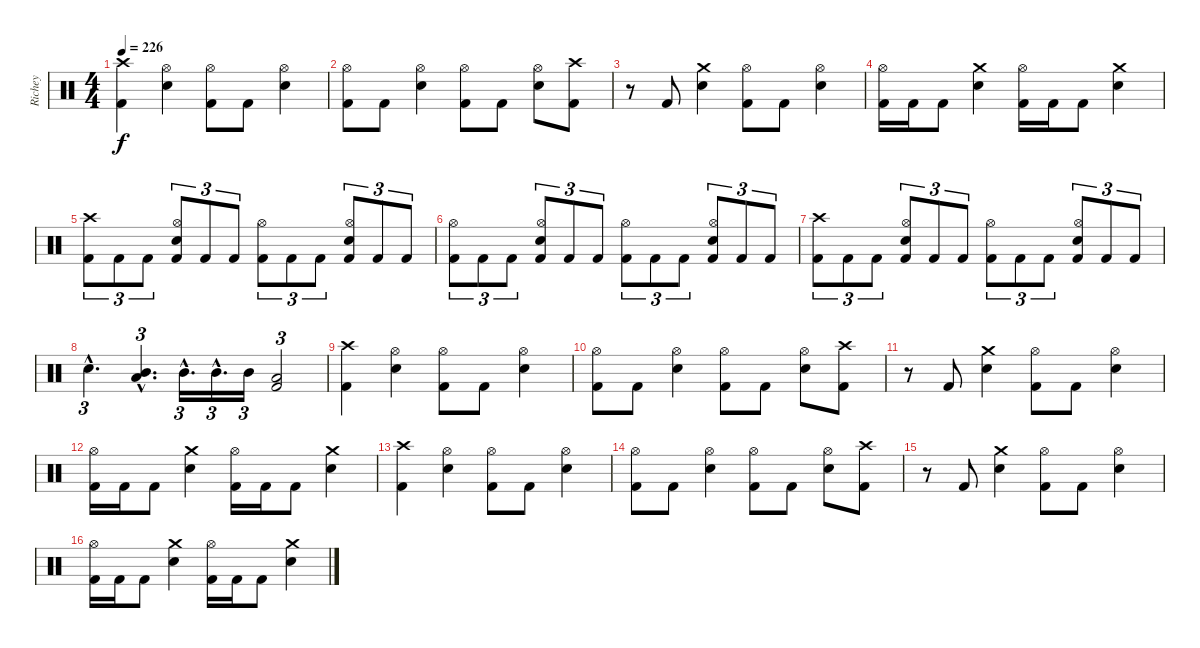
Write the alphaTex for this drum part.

\track ("Richey" "Richey") {instrument percussion}
\staff {score}
\articulation defaults
\ts (4 4)
\tempo 226
\clef neutral
\ks c
("Crash high (hit)" "Kick (hit) 2").4{dy f} ("Hi-Hat (open)" "Snare (hit) 2").4 ("Hi-Hat (open)" "Kick (hit) 2").8 "Kick (hit) 2".8 ("Hi-Hat (open)" "Snare (hit) 2").4 |
("Hi-Hat (open)" "Kick (hit) 2").8 "Kick (hit) 2".8 ("Hi-Hat (open)" "Snare (hit) 2").4 ("Hi-Hat (open)" "Kick (hit) 2").8 "Kick (hit) 2".8 ("Hi-Hat (open)" "Snare (hit) 2").8 ("Crash high (hit)" "Kick (hit) 2").8 |
r.8 "Kick (hit) 2".8 ("Crash medium (hit)" "Snare (hit) 2").4 ("Hi-Hat (open)" "Kick (hit) 2").8 "Kick (hit) 2".8 ("Hi-Hat (open)" "Snare (hit) 2").4 |
("Hi-Hat (open)" "Kick (hit) 2").16 "Kick (hit) 2".16 "Kick (hit) 2".8 ("Crash medium (hit)" "Snare (hit) 2").4 ("Hi-Hat (open)" "Kick (hit) 2").16 "Kick (hit) 2".16 "Kick (hit) 2".8 ("Crash medium (hit)" "Snare (hit) 2").4 |
("Crash high (hit)" "Kick (hit) 2").8{tu (3 2)} "Kick (hit) 2".8{tu (3 2)} "Kick (hit) 2".8{tu (3 2)} ("Hi-Hat (open)" "Snare (hit) 2" "Kick (hit) 2").8{tu (3 2)} "Kick (hit) 2".8{tu (3 2)} "Kick (hit) 2".8{tu (3 2)} ("Hi-Hat (open)" "Kick (hit) 2").8{tu (3 2)} "Kick (hit) 2".8{tu (3 2)} "Kick (hit) 2".8{tu (3 2)} ("Hi-Hat (open)" "Snare (hit) 2" "Kick (hit) 2").8{tu (3 2)} "Kick (hit) 2".8{tu (3 2)} "Kick (hit) 2".8{tu (3 2)} |
("Hi-Hat (open)" "Kick (hit) 2").8{tu (3 2)} "Kick (hit) 2".8{tu (3 2)} "Kick (hit) 2".8{tu (3 2)} ("Hi-Hat (open)" "Snare (hit) 2" "Kick (hit) 2").8{tu (3 2)} "Kick (hit) 2".8{tu (3 2)} "Kick (hit) 2".8{tu (3 2)} ("Hi-Hat (open)" "Kick (hit) 2").8{tu (3 2)} "Kick (hit) 2".8{tu (3 2)} "Kick (hit) 2".8{tu (3 2)} ("Hi-Hat (open)" "Snare (hit) 2" "Kick (hit) 2").8{tu (3 2)} "Kick (hit) 2".8{tu (3 2)} "Kick (hit) 2".8{tu (3 2)} |
("Crash high (hit)" "Kick (hit) 2").8{tu (3 2)} "Kick (hit) 2".8{tu (3 2)} "Kick (hit) 2".8{tu (3 2)} ("Hi-Hat (open)" "Snare (hit) 2" "Kick (hit) 2").8{tu (3 2)} "Kick (hit) 2".8{tu (3 2)} "Kick (hit) 2".8{tu (3 2)} ("Hi-Hat (open)" "Kick (hit) 2").8{tu (3 2)} "Kick (hit) 2".8{tu (3 2)} "Kick (hit) 2".8{tu (3 2)} ("Hi-Hat (open)" "Snare (hit) 2" "Kick (hit) 2").8{tu (3 2)} "Kick (hit) 2".8{tu (3 2)} "Kick (hit) 2".8{tu (3 2)} |
"Snare (hit) 2"{hac}.4{d tu (3 2)} ("Mid Tom (hit)"{hac} "Low Tom (hit)"{hac}).4{d tu (3 2)} "Mid Tom (hit)"{hac}.16{d tu (3 2)} "Mid Tom (hit)"{hac}.16{d tu (3 2)} "Mid Tom (hit)".16{tu (3 2)} ("Low Tom (hit)" "Kick (hit) 2").2{tu (3 2)} |
("Crash high (hit)" "Kick (hit) 2").4 ("Hi-Hat (open)" "Snare (hit) 2").4 ("Hi-Hat (open)" "Kick (hit) 2").8 "Kick (hit) 2".8 ("Hi-Hat (open)" "Snare (hit) 2").4 |
("Hi-Hat (open)" "Kick (hit) 2").8 "Kick (hit) 2".8 ("Hi-Hat (open)" "Snare (hit) 2").4 ("Hi-Hat (open)" "Kick (hit) 2").8 "Kick (hit) 2".8 ("Hi-Hat (open)" "Snare (hit) 2").8 ("Crash high (hit)" "Kick (hit) 2").8 |
r.8 "Kick (hit) 2".8 ("Crash medium (hit)" "Snare (hit) 2").4 ("Hi-Hat (open)" "Kick (hit) 2").8 "Kick (hit) 2".8 ("Hi-Hat (open)" "Snare (hit) 2").4 |
("Hi-Hat (open)" "Kick (hit) 2").16 "Kick (hit) 2".16 "Kick (hit) 2".8 ("Crash medium (hit)" "Snare (hit) 2").4 ("Hi-Hat (open)" "Kick (hit) 2").16 "Kick (hit) 2".16 "Kick (hit) 2".8 ("Crash medium (hit)" "Snare (hit) 2").4 |
("Crash high (hit)" "Kick (hit) 2").4 ("Hi-Hat (open)" "Snare (hit) 2").4 ("Hi-Hat (open)" "Kick (hit) 2").8 "Kick (hit) 2".8 ("Hi-Hat (open)" "Snare (hit) 2").4 |
("Hi-Hat (open)" "Kick (hit) 2").8 "Kick (hit) 2".8 ("Hi-Hat (open)" "Snare (hit) 2").4 ("Hi-Hat (open)" "Kick (hit) 2").8 "Kick (hit) 2".8 ("Hi-Hat (open)" "Snare (hit) 2").8 ("Crash high (hit)" "Kick (hit) 2").8 |
r.8 "Kick (hit) 2".8 ("Crash medium (hit)" "Snare (hit) 2").4 ("Hi-Hat (open)" "Kick (hit) 2").8 "Kick (hit) 2".8 ("Hi-Hat (open)" "Snare (hit) 2").4 |
("Hi-Hat (open)" "Kick (hit) 2").16 "Kick (hit) 2".16 "Kick (hit) 2".8 ("Crash medium (hit)" "Snare (hit) 2").4 ("Hi-Hat (open)" "Kick (hit) 2").16 "Kick (hit) 2".16 "Kick (hit) 2".8 ("Crash medium (hit)" "Snare (hit) 2").4
